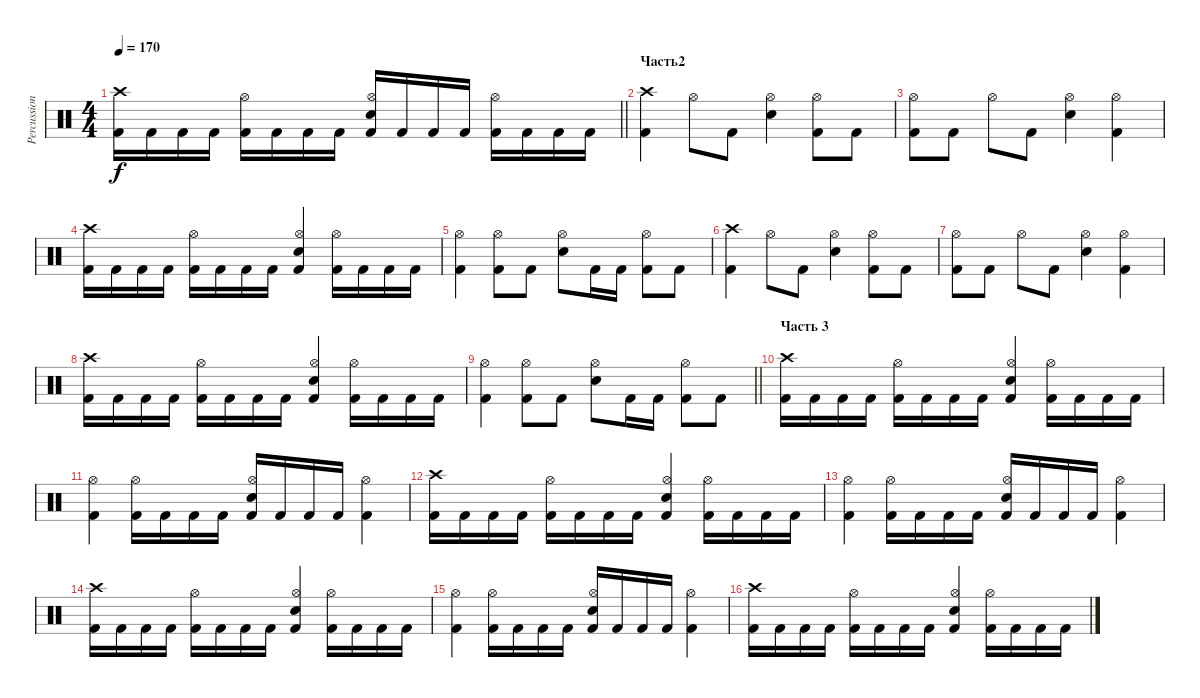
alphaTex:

\track ("Percussion" "Percussion") {instrument percussion}
\staff {score}
\articulation defaults
\ts (4 4)
\tempo 170
\clef neutral
\barLineRight lightlight
\ks c
("Crash high (hit)" "Kick (hit) 2").16{dy f} "Kick (hit) 2".16 "Kick (hit) 2".16 "Kick (hit) 2".16 ("Hi-Hat (open)" "Kick (hit) 2").16 "Kick (hit) 2".16 "Kick (hit) 2".16 "Kick (hit) 2".16 ("Hi-Hat (open)" "Snare (hit) 2" "Kick (hit) 2").16 "Kick (hit) 2".16 "Kick (hit) 2".16 "Kick (hit) 2".16 ("Hi-Hat (open)" "Kick (hit) 2").16 "Kick (hit) 2".16 "Kick (hit) 2".16 "Kick (hit) 2".16 |
\section ("" "Часть2")
("Crash high (hit)" "Kick (hit) 2").4 "Hi-Hat (open)".8 "Kick (hit) 2".8 ("Hi-Hat (open)" "Snare (hit) 2").4 ("Hi-Hat (open)" "Kick (hit) 2").8 "Kick (hit) 2".8 |
("Hi-Hat (open)" "Kick (hit) 2").8 "Kick (hit) 2".8 "Hi-Hat (open)".8 "Kick (hit) 2".8 ("Hi-Hat (open)" "Snare (hit) 2").4 ("Hi-Hat (open)" "Kick (hit) 2").4 |
("Crash high (hit)" "Kick (hit) 2").16 "Kick (hit) 2".16 "Kick (hit) 2".16 "Kick (hit) 2".16 ("Hi-Hat (open)" "Kick (hit) 2").16 "Kick (hit) 2".16 "Kick (hit) 2".16 "Kick (hit) 2".16 ("Hi-Hat (open)" "Snare (hit) 2" "Kick (hit) 2").4 ("Hi-Hat (open)" "Kick (hit) 2").16 "Kick (hit) 2".16 "Kick (hit) 2".16 "Kick (hit) 2".16 |
("Hi-Hat (open)" "Kick (hit) 2").4 ("Hi-Hat (open)" "Kick (hit) 2").8 "Kick (hit) 2".8 ("Hi-Hat (open)" "Snare (hit) 2").8 "Kick (hit) 2".16 "Kick (hit) 2".16 ("Hi-Hat (open)" "Kick (hit) 2").8 "Kick (hit) 2".8 |
("Crash high (hit)" "Kick (hit) 2").4 "Hi-Hat (open)".8 "Kick (hit) 2".8 ("Hi-Hat (open)" "Snare (hit) 2").4 ("Hi-Hat (open)" "Kick (hit) 2").8 "Kick (hit) 2".8 |
("Hi-Hat (open)" "Kick (hit) 2").8 "Kick (hit) 2".8 "Hi-Hat (open)".8 "Kick (hit) 2".8 ("Hi-Hat (open)" "Snare (hit) 2").4 ("Hi-Hat (open)" "Kick (hit) 2").4 |
("Crash high (hit)" "Kick (hit) 2").16 "Kick (hit) 2".16 "Kick (hit) 2".16 "Kick (hit) 2".16 ("Hi-Hat (open)" "Kick (hit) 2").16 "Kick (hit) 2".16 "Kick (hit) 2".16 "Kick (hit) 2".16 ("Hi-Hat (open)" "Snare (hit) 2" "Kick (hit) 2").4 ("Hi-Hat (open)" "Kick (hit) 2").16 "Kick (hit) 2".16 "Kick (hit) 2".16 "Kick (hit) 2".16 |
\barLineRight lightlight
("Hi-Hat (open)" "Kick (hit) 2").4 ("Hi-Hat (open)" "Kick (hit) 2").8 "Kick (hit) 2".8 ("Hi-Hat (open)" "Snare (hit) 2").8 "Kick (hit) 2".16 "Kick (hit) 2".16 ("Hi-Hat (open)" "Kick (hit) 2").8 "Kick (hit) 2".8 |
\section ("" "Часть 3")
("Crash high (hit)" "Kick (hit) 2").16 "Kick (hit) 2".16 "Kick (hit) 2".16 "Kick (hit) 2".16 ("Hi-Hat (open)" "Kick (hit) 2").16 "Kick (hit) 2".16 "Kick (hit) 2".16 "Kick (hit) 2".16 ("Hi-Hat (open)" "Snare (hit) 2" "Kick (hit) 2").4 ("Hi-Hat (open)" "Kick (hit) 2").16 "Kick (hit) 2".16 "Kick (hit) 2".16 "Kick (hit) 2".16 |
("Hi-Hat (open)" "Kick (hit) 2").4 ("Hi-Hat (open)" "Kick (hit) 2").16 "Kick (hit) 2".16 "Kick (hit) 2".16 "Kick (hit) 2".16 ("Hi-Hat (open)" "Snare (hit) 2" "Kick (hit) 2").16 "Kick (hit) 2".16 "Kick (hit) 2".16 "Kick (hit) 2".16 ("Hi-Hat (open)" "Kick (hit) 2").4 |
("Crash high (hit)" "Kick (hit) 2").16 "Kick (hit) 2".16 "Kick (hit) 2".16 "Kick (hit) 2".16 ("Hi-Hat (open)" "Kick (hit) 2").16 "Kick (hit) 2".16 "Kick (hit) 2".16 "Kick (hit) 2".16 ("Hi-Hat (open)" "Snare (hit) 2" "Kick (hit) 2").4 ("Hi-Hat (open)" "Kick (hit) 2").16 "Kick (hit) 2".16 "Kick (hit) 2".16 "Kick (hit) 2".16 |
("Hi-Hat (open)" "Kick (hit) 2").4 ("Hi-Hat (open)" "Kick (hit) 2").16 "Kick (hit) 2".16 "Kick (hit) 2".16 "Kick (hit) 2".16 ("Hi-Hat (open)" "Snare (hit) 2" "Kick (hit) 2").16 "Kick (hit) 2".16 "Kick (hit) 2".16 "Kick (hit) 2".16 ("Hi-Hat (open)" "Kick (hit) 2").4 |
("Crash high (hit)" "Kick (hit) 2").16 "Kick (hit) 2".16 "Kick (hit) 2".16 "Kick (hit) 2".16 ("Hi-Hat (open)" "Kick (hit) 2").16 "Kick (hit) 2".16 "Kick (hit) 2".16 "Kick (hit) 2".16 ("Hi-Hat (open)" "Snare (hit) 2" "Kick (hit) 2").4 ("Hi-Hat (open)" "Kick (hit) 2").16 "Kick (hit) 2".16 "Kick (hit) 2".16 "Kick (hit) 2".16 |
("Hi-Hat (open)" "Kick (hit) 2").4 ("Hi-Hat (open)" "Kick (hit) 2").16 "Kick (hit) 2".16 "Kick (hit) 2".16 "Kick (hit) 2".16 ("Hi-Hat (open)" "Snare (hit) 2" "Kick (hit) 2").16 "Kick (hit) 2".16 "Kick (hit) 2".16 "Kick (hit) 2".16 ("Hi-Hat (open)" "Kick (hit) 2").4 |
("Crash high (hit)" "Kick (hit) 2").16 "Kick (hit) 2".16 "Kick (hit) 2".16 "Kick (hit) 2".16 ("Hi-Hat (open)" "Kick (hit) 2").16 "Kick (hit) 2".16 "Kick (hit) 2".16 "Kick (hit) 2".16 ("Hi-Hat (open)" "Snare (hit) 2" "Kick (hit) 2").4 ("Hi-Hat (open)" "Kick (hit) 2").16 "Kick (hit) 2".16 "Kick (hit) 2".16 "Kick (hit) 2".16
